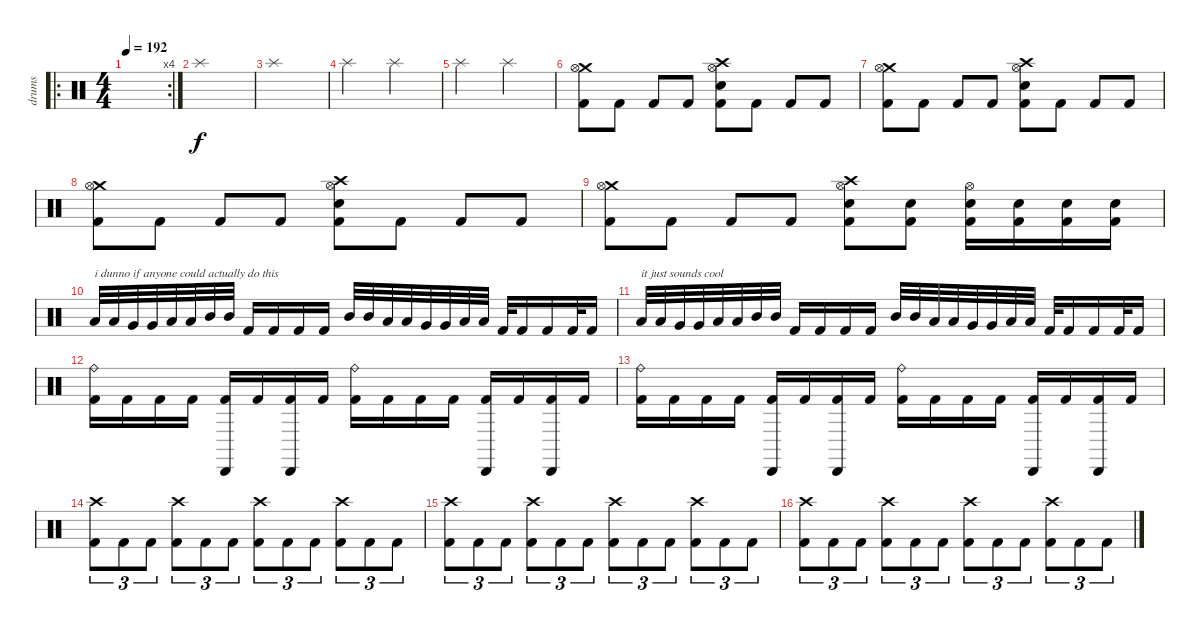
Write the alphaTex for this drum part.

\track ("drums" "drums") {instrument percussion}
\staff {score}
\articulation defaults
\ro
\rc 4
\ts (4 4)
\tempo 192
\clef neutral
\ks c
|
"Splash (hit)".1 |
"Splash (hit)".1 |
"Splash (hit)".2 "Splash (hit)".2 |
"Splash (hit)".2 "Splash (hit)".2 |
("Crash medium (hit)" "Hi-Hat (open)" "Kick (hit) 2").8 "Kick (hit) 2".8 "Kick (hit) 2".8 "Kick (hit) 2".8 ("Crash high (hit)" "Hi-Hat (open)" "Electric Snare (hit)" "Kick (hit) 2").8 "Kick (hit) 2".8 "Kick (hit) 2".8 "Kick (hit) 2".8 |
("Crash medium (hit)" "Hi-Hat (open)" "Kick (hit) 2").8 "Kick (hit) 2".8 "Kick (hit) 2".8 "Kick (hit) 2".8 ("Crash high (hit)" "Hi-Hat (open)" "Electric Snare (hit)" "Kick (hit) 2").8 "Kick (hit) 2".8 "Kick (hit) 2".8 "Kick (hit) 2".8 |
("Crash medium (hit)" "Hi-Hat (open)" "Kick (hit) 2").8 "Kick (hit) 2".8 "Kick (hit) 2".8 "Kick (hit) 2".8 ("Crash high (hit)" "Hi-Hat (open)" "Electric Snare (hit)" "Kick (hit) 2").8 "Kick (hit) 2".8 "Kick (hit) 2".8 "Kick (hit) 2".8 |
("Crash medium (hit)" "Hi-Hat (open)" "Kick (hit) 2").8 "Kick (hit) 2".8 "Kick (hit) 2".8 "Kick (hit) 2".8 ("Crash high (hit)" "Hi-Hat (open)" "Electric Snare (hit)" "Kick (hit) 2").8 ("Electric Snare (hit)" "Kick (hit) 2").8 ("Hi-Hat (open)" "Electric Snare (hit)" "Kick (hit) 2").16 ("Electric Snare (hit)" "Kick (hit) 2").16 ("Electric Snare (hit)" "Kick (hit) 2").16 ("Electric Snare (hit)" "Kick (hit) 2").16 |
"Low Floor Tom (hit)".32{txt "i dunno if anyone could actually do this"} "Low Floor Tom (hit)".32 "Very Low Tom (hit)".32 "Very Low Tom (hit)".32 "Low Tom (hit)".32 "Low Tom (hit)".32 "Mid Tom (hit)".32 "Mid Tom (hit)".32 "Kick (hit) 2".16 "Kick (hit) 2".16 "Kick (hit) 2".16 "Kick (hit) 2".16 "Mid Tom (hit)".32 "Mid Tom (hit)".32 "Low Tom (hit)".32 "Low Tom (hit)".32 "Very Low Tom (hit)".32 "Very Low Tom (hit)".32 "Low Floor Tom (hit)".32 "Low Floor Tom (hit)".32 "Kick (hit) 2".32 "Kick (hit) 2".16 "Kick (hit) 2".16 "Kick (hit) 2".32 "Kick (hit) 2".16 |
"Low Floor Tom (hit)".32{txt "it just sounds cool"} "Low Floor Tom (hit)".32 "Very Low Tom (hit)".32 "Very Low Tom (hit)".32 "Low Tom (hit)".32 "Low Tom (hit)".32 "Mid Tom (hit)".32 "Mid Tom (hit)".32 "Kick (hit) 2".16 "Kick (hit) 2".16 "Kick (hit) 2".16 "Kick (hit) 2".16 "Mid Tom (hit)".32 "Mid Tom (hit)".32 "Low Tom (hit)".32 "Low Tom (hit)".32 "Very Low Tom (hit)".32 "Very Low Tom (hit)".32 "Low Floor Tom (hit)".32 "Low Floor Tom (hit)".32 "Kick (hit) 2".32 "Kick (hit) 2".16 "Kick (hit) 2".16 "Kick (hit) 2".32 "Kick (hit) 2".16 |
("Ride (bell)" "Kick (hit) 2").16 "Kick (hit) 2".16 "Kick (hit) 2".16 "Kick (hit) 2".16 ("Cabasa (hit)" "Kick (hit) 2").16 "Kick (hit) 2".16 ("Cabasa (hit)" "Kick (hit) 2").16 "Kick (hit) 2".16 ("Ride (bell)" "Kick (hit) 2").16 "Kick (hit) 2".16 "Kick (hit) 2".16 "Kick (hit) 2".16 ("Cabasa (hit)" "Kick (hit) 2").16 "Kick (hit) 2".16 ("Cabasa (hit)" "Kick (hit) 2").16 "Kick (hit) 2".16 |
("Ride (bell)" "Kick (hit) 2").16 "Kick (hit) 2".16 "Kick (hit) 2".16 "Kick (hit) 2".16 ("Cabasa (hit)" "Kick (hit) 2").16 "Kick (hit) 2".16 ("Cabasa (hit)" "Kick (hit) 2").16 "Kick (hit) 2".16 ("Ride (bell)" "Kick (hit) 2").16 "Kick (hit) 2".16 "Kick (hit) 2".16 "Kick (hit) 2".16 ("Cabasa (hit)" "Kick (hit) 2").16 "Kick (hit) 2".16 ("Cabasa (hit)" "Kick (hit) 2").16 "Kick (hit) 2".16 |
("Crash high (hit)" "Kick (hit) 2").8{tu (3 2)} "Kick (hit) 2".8{tu (3 2)} "Kick (hit) 2".8{tu (3 2)} ("Crash high (hit)" "Kick (hit) 2").8{tu (3 2)} "Kick (hit) 2".8{tu (3 2)} "Kick (hit) 2".8{tu (3 2)} ("Crash high (hit)" "Kick (hit) 2").8{tu (3 2)} "Kick (hit) 2".8{tu (3 2)} "Kick (hit) 2".8{tu (3 2)} ("Crash high (hit)" "Kick (hit) 2").8{tu (3 2)} "Kick (hit) 2".8{tu (3 2)} "Kick (hit) 2".8{tu (3 2)} |
("Crash high (hit)" "Kick (hit) 2").8{tu (3 2)} "Kick (hit) 2".8{tu (3 2)} "Kick (hit) 2".8{tu (3 2)} ("Crash high (hit)" "Kick (hit) 2").8{tu (3 2)} "Kick (hit) 2".8{tu (3 2)} "Kick (hit) 2".8{tu (3 2)} ("Crash high (hit)" "Kick (hit) 2").8{tu (3 2)} "Kick (hit) 2".8{tu (3 2)} "Kick (hit) 2".8{tu (3 2)} ("Crash high (hit)" "Kick (hit) 2").8{tu (3 2)} "Kick (hit) 2".8{tu (3 2)} "Kick (hit) 2".8{tu (3 2)} |
("Crash high (hit)" "Kick (hit) 2").8{tu (3 2)} "Kick (hit) 2".8{tu (3 2)} "Kick (hit) 2".8{tu (3 2)} ("Crash high (hit)" "Kick (hit) 2").8{tu (3 2)} "Kick (hit) 2".8{tu (3 2)} "Kick (hit) 2".8{tu (3 2)} ("Crash high (hit)" "Kick (hit) 2").8{tu (3 2)} "Kick (hit) 2".8{tu (3 2)} "Kick (hit) 2".8{tu (3 2)} ("Crash high (hit)" "Kick (hit) 2").8{tu (3 2)} "Kick (hit) 2".8{tu (3 2)} "Kick (hit) 2".8{tu (3 2)}
